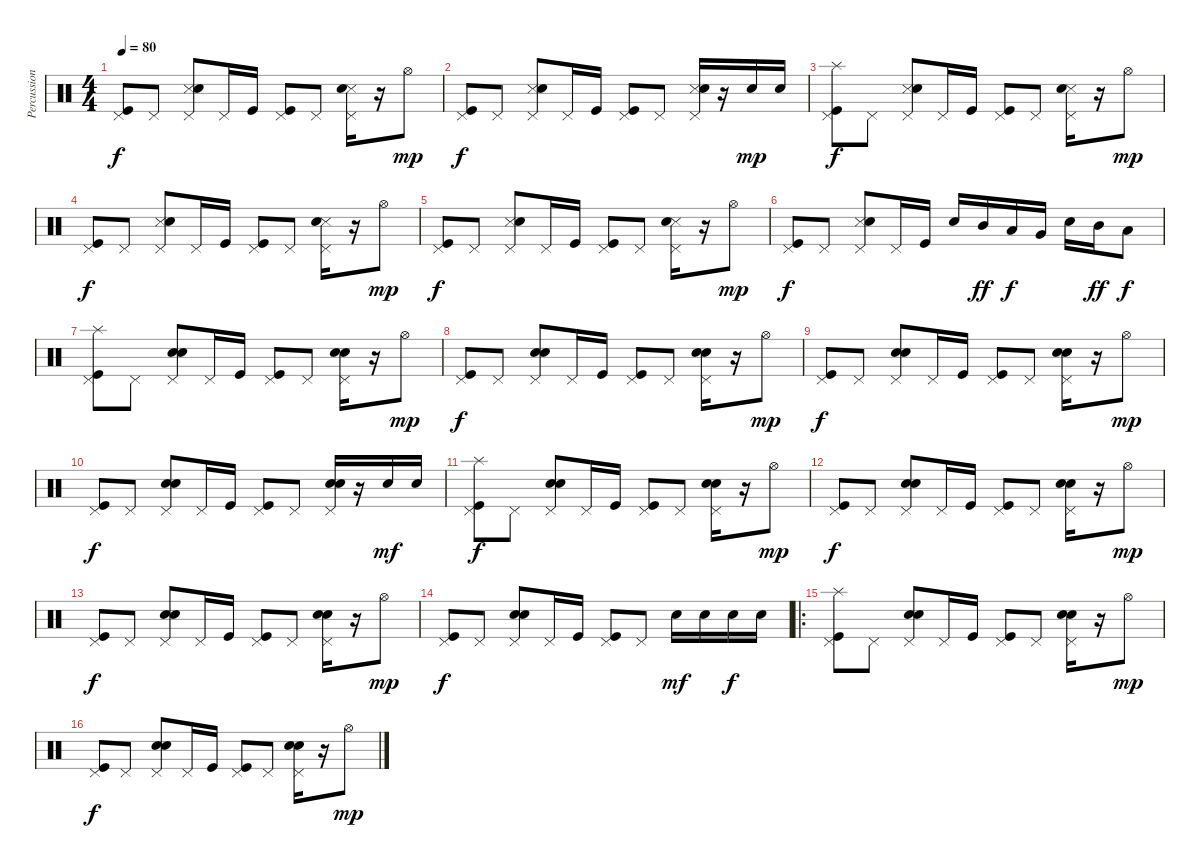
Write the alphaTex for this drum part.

\track ("Percussion" "Percussion") {instrument percussion}
\staff {score}
\articulation defaults
\ts (4 4)
\tempo 80
\clef neutral
\ks c
("Pedal Hi-Hat (hit)" "Kick (hit)").8{dy f} "Pedal Hi-Hat (hit)".8 ("Pedal Hi-Hat (hit)" "Metronome (hit)" "Electric Snare (hit)").8 "Pedal Hi-Hat (hit)".16 "Kick (hit)".16 ("Pedal Hi-Hat (hit)" "Kick (hit)").8 "Pedal Hi-Hat (hit)".8 ("Pedal Hi-Hat (hit)" "Metronome (hit)" "Electric Snare (hit)").16 r.16 "Hi-Hat (open)".8{dy mp} |
("Pedal Hi-Hat (hit)" "Kick (hit)").8{dy f} "Pedal Hi-Hat (hit)".8 ("Pedal Hi-Hat (hit)" "Metronome (hit)" "Electric Snare (hit)").8 "Pedal Hi-Hat (hit)".16 "Kick (hit)".16 ("Pedal Hi-Hat (hit)" "Kick (hit)").8 "Pedal Hi-Hat (hit)".8 ("Pedal Hi-Hat (hit)" "Metronome (hit)" "Electric Snare (hit)").16 r.16 "Electric Snare (hit)".16{dy mp} "Electric Snare (hit)".16 |
("Pedal Hi-Hat (hit)" "Kick (hit)" "Splash (hit)").8{dy f} "Pedal Hi-Hat (hit)".8 ("Pedal Hi-Hat (hit)" "Metronome (hit)" "Electric Snare (hit)").8 "Pedal Hi-Hat (hit)".16 "Kick (hit)".16 ("Pedal Hi-Hat (hit)" "Kick (hit)").8 "Pedal Hi-Hat (hit)".8 ("Pedal Hi-Hat (hit)" "Metronome (hit)" "Electric Snare (hit)").16 r.16 "Hi-Hat (open)".8{dy mp} |
("Pedal Hi-Hat (hit)" "Kick (hit)").8{dy f} "Pedal Hi-Hat (hit)".8 ("Pedal Hi-Hat (hit)" "Metronome (hit)" "Electric Snare (hit)").8 "Pedal Hi-Hat (hit)".16 "Kick (hit)".16 ("Pedal Hi-Hat (hit)" "Kick (hit)").8 "Pedal Hi-Hat (hit)".8 ("Pedal Hi-Hat (hit)" "Metronome (hit)" "Electric Snare (hit)").16 r.16 "Hi-Hat (open)".8{dy mp} |
("Pedal Hi-Hat (hit)" "Kick (hit)").8{dy f} "Pedal Hi-Hat (hit)".8 ("Pedal Hi-Hat (hit)" "Metronome (hit)" "Electric Snare (hit)").8 "Pedal Hi-Hat (hit)".16 "Kick (hit)".16 ("Pedal Hi-Hat (hit)" "Kick (hit)").8 "Pedal Hi-Hat (hit)".8 ("Pedal Hi-Hat (hit)" "Metronome (hit)" "Electric Snare (hit)").16 r.16 "Hi-Hat (open)".8{dy mp} |
("Pedal Hi-Hat (hit)" "Kick (hit)").8{dy f} "Pedal Hi-Hat (hit)".8 ("Pedal Hi-Hat (hit)" "Metronome (hit)" "Electric Snare (hit)").8 "Pedal Hi-Hat (hit)".16 "Kick (hit)".16 "Electric Snare (hit)".16 "Mid Tom (hit)".16{dy ff} "Low Tom (hit)".16{dy f} "Very Low Tom (hit)".16 "Electric Snare (hit)".16 "Mid Tom (hit)".16{dy ff} "Low Tom (hit)".8{dy f} |
("Pedal Hi-Hat (hit)" "Kick (hit)" "Splash (hit)").8 "Pedal Hi-Hat (hit)".8 ("Pedal Hi-Hat (hit)" "Hand Clap (hit)" "Electric Snare (hit)").8 "Pedal Hi-Hat (hit)".16 "Kick (hit)".16 ("Pedal Hi-Hat (hit)" "Kick (hit)").8 "Pedal Hi-Hat (hit)".8 ("Pedal Hi-Hat (hit)" "Hand Clap (hit)" "Electric Snare (hit)").16 r.16 "Hi-Hat (open)".8{dy mp} |
("Pedal Hi-Hat (hit)" "Kick (hit)").8{dy f} "Pedal Hi-Hat (hit)".8 ("Pedal Hi-Hat (hit)" "Hand Clap (hit)" "Electric Snare (hit)").8 "Pedal Hi-Hat (hit)".16 "Kick (hit)".16 ("Pedal Hi-Hat (hit)" "Kick (hit)").8 "Pedal Hi-Hat (hit)".8 ("Pedal Hi-Hat (hit)" "Hand Clap (hit)" "Electric Snare (hit)").16 r.16 "Hi-Hat (open)".8{dy mp} |
("Pedal Hi-Hat (hit)" "Kick (hit)").8{dy f} "Pedal Hi-Hat (hit)".8 ("Pedal Hi-Hat (hit)" "Hand Clap (hit)" "Electric Snare (hit)").8 "Pedal Hi-Hat (hit)".16 "Kick (hit)".16 ("Pedal Hi-Hat (hit)" "Kick (hit)").8 "Pedal Hi-Hat (hit)".8 ("Pedal Hi-Hat (hit)" "Hand Clap (hit)" "Electric Snare (hit)").16 r.16 "Hi-Hat (open)".8{dy mp} |
("Pedal Hi-Hat (hit)" "Kick (hit)").8{dy f} "Pedal Hi-Hat (hit)".8 ("Pedal Hi-Hat (hit)" "Hand Clap (hit)" "Electric Snare (hit)").8 "Pedal Hi-Hat (hit)".16 "Kick (hit)".16 ("Pedal Hi-Hat (hit)" "Kick (hit)").8 "Pedal Hi-Hat (hit)".8 ("Pedal Hi-Hat (hit)" "Hand Clap (hit)" "Electric Snare (hit)").16 r.16 "Electric Snare (hit)".16{dy mf} "Electric Snare (hit)".16 |
("Pedal Hi-Hat (hit)" "Kick (hit)" "Splash (hit)").8{dy f} "Pedal Hi-Hat (hit)".8 ("Pedal Hi-Hat (hit)" "Hand Clap (hit)" "Electric Snare (hit)").8 "Pedal Hi-Hat (hit)".16 "Kick (hit)".16 ("Pedal Hi-Hat (hit)" "Kick (hit)").8 "Pedal Hi-Hat (hit)".8 ("Pedal Hi-Hat (hit)" "Hand Clap (hit)" "Electric Snare (hit)").16 r.16 "Hi-Hat (open)".8{dy mp} |
("Pedal Hi-Hat (hit)" "Kick (hit)").8{dy f} "Pedal Hi-Hat (hit)".8 ("Pedal Hi-Hat (hit)" "Hand Clap (hit)" "Electric Snare (hit)").8 "Pedal Hi-Hat (hit)".16 "Kick (hit)".16 ("Pedal Hi-Hat (hit)" "Kick (hit)").8 "Pedal Hi-Hat (hit)".8 ("Pedal Hi-Hat (hit)" "Hand Clap (hit)" "Electric Snare (hit)").16 r.16 "Hi-Hat (open)".8{dy mp} |
("Pedal Hi-Hat (hit)" "Kick (hit)").8{dy f} "Pedal Hi-Hat (hit)".8 ("Pedal Hi-Hat (hit)" "Hand Clap (hit)" "Electric Snare (hit)").8 "Pedal Hi-Hat (hit)".16 "Kick (hit)".16 ("Pedal Hi-Hat (hit)" "Kick (hit)").8 "Pedal Hi-Hat (hit)".8 ("Pedal Hi-Hat (hit)" "Hand Clap (hit)" "Electric Snare (hit)").16 r.16 "Hi-Hat (open)".8{dy mp} |
("Pedal Hi-Hat (hit)" "Kick (hit)").8{dy f} "Pedal Hi-Hat (hit)".8 ("Pedal Hi-Hat (hit)" "Hand Clap (hit)" "Electric Snare (hit)").8 "Pedal Hi-Hat (hit)".16 "Kick (hit)".16 ("Pedal Hi-Hat (hit)" "Kick (hit)").8 "Pedal Hi-Hat (hit)".8 "Electric Snare (hit)".16{dy mf} "Electric Snare (hit)".16 "Electric Snare (hit)".16{dy f} "Electric Snare (hit)".16 |
\ro
("Pedal Hi-Hat (hit)" "Kick (hit)" "Splash (hit)").8 "Pedal Hi-Hat (hit)".8 ("Pedal Hi-Hat (hit)" "Hand Clap (hit)" "Electric Snare (hit)").8 "Pedal Hi-Hat (hit)".16 "Kick (hit)".16 ("Pedal Hi-Hat (hit)" "Kick (hit)").8 "Pedal Hi-Hat (hit)".8 ("Pedal Hi-Hat (hit)" "Hand Clap (hit)" "Electric Snare (hit)").16 r.16 "Hi-Hat (open)".8{dy mp} |
("Pedal Hi-Hat (hit)" "Kick (hit)").8{dy f} "Pedal Hi-Hat (hit)".8 ("Pedal Hi-Hat (hit)" "Hand Clap (hit)" "Electric Snare (hit)").8 "Pedal Hi-Hat (hit)".16 "Kick (hit)".16 ("Pedal Hi-Hat (hit)" "Kick (hit)").8 "Pedal Hi-Hat (hit)".8 ("Pedal Hi-Hat (hit)" "Hand Clap (hit)" "Electric Snare (hit)").16 r.16 "Hi-Hat (open)".8{dy mp}
